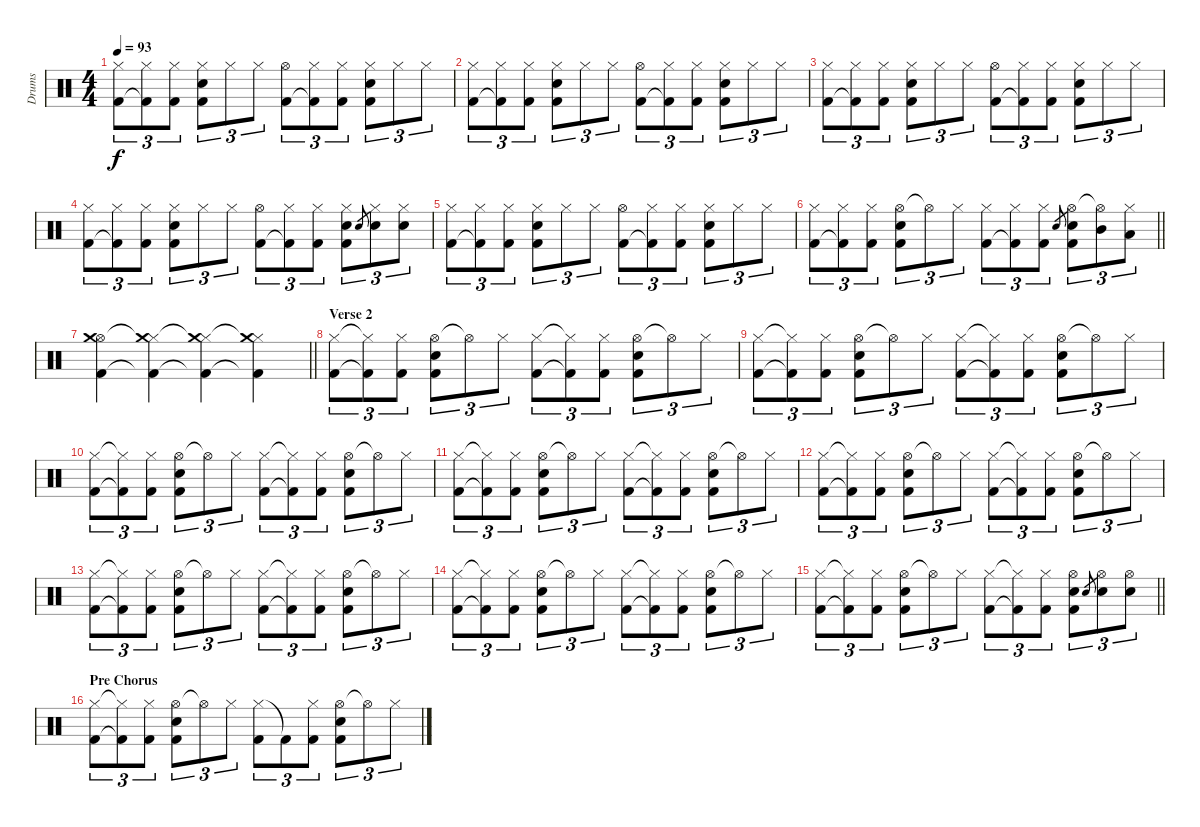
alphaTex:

\track ("Drums" "Drums") {instrument percussion}
\staff {score}
\articulation defaults
\ts (4 4)
\tempo 93
\clef neutral
\ks c
("Hi-Hat (closed)" "Kick (hit) 2").8{tu (3 2) dy f} ("Hi-Hat (closed)" "Kick (hit) 2"{t}).8{tu (3 2)} ("Hi-Hat (closed)" "Kick (hit) 2").8{tu (3 2)} ("Hi-Hat (closed)" "Snare (hit) 2" "Kick (hit) 2").8{tu (3 2)} "Hi-Hat (closed)".8{tu (3 2)} "Hi-Hat (closed)".8{tu (3 2)} ("Hi-Hat (open)" "Kick (hit) 2").8{tu (3 2)} ("Hi-Hat (closed)" "Kick (hit) 2"{t}).8{tu (3 2)} ("Hi-Hat (closed)" "Kick (hit) 2").8{tu (3 2)} ("Hi-Hat (closed)" "Snare (hit) 2" "Kick (hit) 2").8{tu (3 2)} "Hi-Hat (closed)".8{tu (3 2)} "Hi-Hat (closed)".8{tu (3 2)} |
("Hi-Hat (closed)" "Kick (hit) 2").8{tu (3 2)} ("Hi-Hat (closed)" "Kick (hit) 2"{t}).8{tu (3 2)} ("Hi-Hat (closed)" "Kick (hit) 2").8{tu (3 2)} ("Hi-Hat (closed)" "Snare (hit) 2" "Kick (hit) 2").8{tu (3 2)} "Hi-Hat (closed)".8{tu (3 2)} "Hi-Hat (closed)".8{tu (3 2)} ("Hi-Hat (open)" "Kick (hit) 2").8{tu (3 2)} ("Hi-Hat (closed)" "Kick (hit) 2"{t}).8{tu (3 2)} ("Hi-Hat (closed)" "Kick (hit) 2").8{tu (3 2)} ("Hi-Hat (closed)" "Snare (hit) 2" "Kick (hit) 2").8{tu (3 2)} "Hi-Hat (closed)".8{tu (3 2)} "Hi-Hat (closed)".8{tu (3 2)} |
("Hi-Hat (closed)" "Kick (hit) 2").8{tu (3 2)} ("Hi-Hat (closed)" "Kick (hit) 2"{t}).8{tu (3 2)} ("Hi-Hat (closed)" "Kick (hit) 2").8{tu (3 2)} ("Hi-Hat (closed)" "Snare (hit) 2" "Kick (hit) 2").8{tu (3 2)} "Hi-Hat (closed)".8{tu (3 2)} "Hi-Hat (closed)".8{tu (3 2)} ("Hi-Hat (open)" "Kick (hit) 2").8{tu (3 2)} ("Hi-Hat (closed)" "Kick (hit) 2"{t}).8{tu (3 2)} ("Hi-Hat (closed)" "Kick (hit) 2").8{tu (3 2)} ("Hi-Hat (closed)" "Snare (hit) 2" "Kick (hit) 2").8{tu (3 2)} "Hi-Hat (closed)".8{tu (3 2)} "Hi-Hat (closed)".8{tu (3 2)} |
("Hi-Hat (closed)" "Kick (hit) 2").8{tu (3 2)} ("Hi-Hat (closed)" "Kick (hit) 2"{t}).8{tu (3 2)} ("Hi-Hat (closed)" "Kick (hit) 2").8{tu (3 2)} ("Hi-Hat (closed)" "Snare (hit) 2" "Kick (hit) 2").8{tu (3 2)} "Hi-Hat (closed)".8{tu (3 2)} "Hi-Hat (closed)".8{tu (3 2)} ("Hi-Hat (open)" "Kick (hit) 2").8{tu (3 2)} ("Hi-Hat (closed)" "Kick (hit) 2"{t}).8{tu (3 2)} ("Hi-Hat (closed)" "Kick (hit) 2").8{tu (3 2)} ("Hi-Hat (closed)" "Snare (hit) 2" "Kick (hit) 2").8{tu (3 2)} "Snare (hit) 2".8{gr} ("Hi-Hat (closed)" "Snare (hit) 2").8{tu (3 2)} ("Hi-Hat (closed)" "Snare (hit) 2").8{tu (3 2)} |
("Hi-Hat (closed)" "Kick (hit) 2").8{tu (3 2)} ("Hi-Hat (closed)" "Kick (hit) 2"{t}).8{tu (3 2)} ("Hi-Hat (closed)" "Kick (hit) 2").8{tu (3 2)} ("Hi-Hat (closed)" "Snare (hit) 2" "Kick (hit) 2").8{tu (3 2)} "Hi-Hat (closed)".8{tu (3 2)} "Hi-Hat (closed)".8{tu (3 2)} ("Hi-Hat (open)" "Kick (hit) 2").8{tu (3 2)} ("Hi-Hat (closed)" "Kick (hit) 2"{t}).8{tu (3 2)} ("Hi-Hat (closed)" "Kick (hit) 2").8{tu (3 2)} ("Hi-Hat (closed)" "Snare (hit) 2" "Kick (hit) 2").8{tu (3 2)} "Hi-Hat (closed)".8{tu (3 2)} "Hi-Hat (closed)".8{tu (3 2)} |
\barLineRight lightlight
("Hi-Hat (closed)" "Kick (hit) 2").8{tu (3 2)} ("Hi-Hat (closed)" "Kick (hit) 2"{t}).8{tu (3 2)} ("Hi-Hat (closed)" "Kick (hit) 2").8{tu (3 2)} ("Hi-Hat (open)" "Snare (hit) 2" "Kick (hit) 2").8{tu (3 2)} "Hi-Hat (open)"{t}.8{tu (3 2)} "Hi-Hat (closed)".8{tu (3 2)} ("Hi-Hat (closed)" "Kick (hit) 2").8{tu (3 2)} ("Hi-Hat (closed)" "Kick (hit) 2"{t}).8{tu (3 2)} ("Hi-Hat (closed)" "Kick (hit) 2").8{tu (3 2)} "Snare (hit) 2".8{gr} ("Hi-Hat (open)" "Snare (hit) 2" "Kick (hit) 2").8{tu (3 2)} ("Hi-Hat (open)"{t} "Mid Tom (hit)").8{tu (3 2)} ("Hi-Hat (closed)" "Low Floor Tom (hit)").8{tu (3 2)} |
\barLineRight lightlight
("Hi-Hat (open)" "Crash medium (hit)" "Kick (hit) 2").4 ("Hi-Hat (closed)" "Crash medium (hit)"{t} "Kick (hit) 2"{t}).4 ("Hi-Hat (closed)" "Crash medium (hit)"{t} "Kick (hit) 2"{t}).4 ("Hi-Hat (closed)" "Crash medium (hit)"{t} "Kick (hit) 2"{t}).4 |
\section ("" "Verse 2")
("Hi-Hat (closed)" "Kick (hit) 2").8{tu (3 2)} ("Hi-Hat (closed)"{t} "Kick (hit) 2"{t}).8{tu (3 2)} ("Hi-Hat (closed)" "Kick (hit) 2").8{tu (3 2)} ("Hi-Hat (open)" "Snare (hit) 2" "Kick (hit) 2").8{tu (3 2)} "Hi-Hat (open)"{t}.8{tu (3 2)} "Hi-Hat (closed)".8{tu (3 2)} ("Hi-Hat (closed)" "Kick (hit) 2").8{tu (3 2)} ("Hi-Hat (closed)"{t} "Kick (hit) 2"{t}).8{tu (3 2)} ("Hi-Hat (closed)" "Kick (hit) 2").8{tu (3 2)} ("Hi-Hat (open)" "Snare (hit) 2" "Kick (hit) 2").8{tu (3 2)} "Hi-Hat (open)"{t}.8{tu (3 2)} "Hi-Hat (closed)".8{tu (3 2)} |
("Hi-Hat (closed)" "Kick (hit) 2").8{tu (3 2)} ("Hi-Hat (closed)"{t} "Kick (hit) 2"{t}).8{tu (3 2)} ("Hi-Hat (closed)" "Kick (hit) 2").8{tu (3 2)} ("Hi-Hat (open)" "Snare (hit) 2" "Kick (hit) 2").8{tu (3 2)} "Hi-Hat (open)"{t}.8{tu (3 2)} "Hi-Hat (closed)".8{tu (3 2)} ("Hi-Hat (closed)" "Kick (hit) 2").8{tu (3 2)} ("Hi-Hat (closed)"{t} "Kick (hit) 2"{t}).8{tu (3 2)} ("Hi-Hat (closed)" "Kick (hit) 2").8{tu (3 2)} ("Hi-Hat (open)" "Snare (hit) 2" "Kick (hit) 2").8{tu (3 2)} "Hi-Hat (open)"{t}.8{tu (3 2)} "Hi-Hat (closed)".8{tu (3 2)} |
("Hi-Hat (closed)" "Kick (hit) 2").8{tu (3 2)} ("Hi-Hat (closed)"{t} "Kick (hit) 2"{t}).8{tu (3 2)} ("Hi-Hat (closed)" "Kick (hit) 2").8{tu (3 2)} ("Hi-Hat (open)" "Snare (hit) 2" "Kick (hit) 2").8{tu (3 2)} "Hi-Hat (open)"{t}.8{tu (3 2)} "Hi-Hat (closed)".8{tu (3 2)} ("Hi-Hat (closed)" "Kick (hit) 2").8{tu (3 2)} ("Hi-Hat (closed)"{t} "Kick (hit) 2"{t}).8{tu (3 2)} ("Hi-Hat (closed)" "Kick (hit) 2").8{tu (3 2)} ("Hi-Hat (open)" "Snare (hit) 2" "Kick (hit) 2").8{tu (3 2)} "Hi-Hat (open)"{t}.8{tu (3 2)} "Hi-Hat (closed)".8{tu (3 2)} |
("Hi-Hat (closed)" "Kick (hit) 2").8{tu (3 2)} ("Hi-Hat (closed)"{t} "Kick (hit) 2"{t}).8{tu (3 2)} ("Hi-Hat (closed)" "Kick (hit) 2").8{tu (3 2)} ("Hi-Hat (open)" "Snare (hit) 2" "Kick (hit) 2").8{tu (3 2)} "Hi-Hat (open)"{t}.8{tu (3 2)} "Hi-Hat (closed)".8{tu (3 2)} ("Hi-Hat (closed)" "Kick (hit) 2").8{tu (3 2)} ("Hi-Hat (closed)"{t} "Kick (hit) 2"{t}).8{tu (3 2)} ("Hi-Hat (closed)" "Kick (hit) 2").8{tu (3 2)} ("Hi-Hat (open)" "Snare (hit) 2" "Kick (hit) 2").8{tu (3 2)} "Hi-Hat (open)"{t}.8{tu (3 2)} "Hi-Hat (closed)".8{tu (3 2)} |
("Hi-Hat (closed)" "Kick (hit) 2").8{tu (3 2)} ("Hi-Hat (closed)"{t} "Kick (hit) 2"{t}).8{tu (3 2)} ("Hi-Hat (closed)" "Kick (hit) 2").8{tu (3 2)} ("Hi-Hat (open)" "Snare (hit) 2" "Kick (hit) 2").8{tu (3 2)} "Hi-Hat (open)"{t}.8{tu (3 2)} "Hi-Hat (closed)".8{tu (3 2)} ("Hi-Hat (closed)" "Kick (hit) 2").8{tu (3 2)} ("Hi-Hat (closed)"{t} "Kick (hit) 2"{t}).8{tu (3 2)} ("Hi-Hat (closed)" "Kick (hit) 2").8{tu (3 2)} ("Hi-Hat (open)" "Snare (hit) 2" "Kick (hit) 2").8{tu (3 2)} "Hi-Hat (open)"{t}.8{tu (3 2)} "Hi-Hat (closed)".8{tu (3 2)} |
("Hi-Hat (closed)" "Kick (hit) 2").8{tu (3 2)} ("Hi-Hat (closed)"{t} "Kick (hit) 2"{t}).8{tu (3 2)} ("Hi-Hat (closed)" "Kick (hit) 2").8{tu (3 2)} ("Hi-Hat (open)" "Snare (hit) 2" "Kick (hit) 2").8{tu (3 2)} "Hi-Hat (open)"{t}.8{tu (3 2)} "Hi-Hat (closed)".8{tu (3 2)} ("Hi-Hat (closed)" "Kick (hit) 2").8{tu (3 2)} ("Hi-Hat (closed)"{t} "Kick (hit) 2"{t}).8{tu (3 2)} ("Hi-Hat (closed)" "Kick (hit) 2").8{tu (3 2)} ("Hi-Hat (open)" "Snare (hit) 2" "Kick (hit) 2").8{tu (3 2)} "Hi-Hat (open)"{t}.8{tu (3 2)} "Hi-Hat (closed)".8{tu (3 2)} |
("Hi-Hat (closed)" "Kick (hit) 2").8{tu (3 2)} ("Hi-Hat (closed)"{t} "Kick (hit) 2"{t}).8{tu (3 2)} ("Hi-Hat (closed)" "Kick (hit) 2").8{tu (3 2)} ("Hi-Hat (open)" "Snare (hit) 2" "Kick (hit) 2").8{tu (3 2)} "Hi-Hat (open)"{t}.8{tu (3 2)} "Hi-Hat (closed)".8{tu (3 2)} ("Hi-Hat (closed)" "Kick (hit) 2").8{tu (3 2)} ("Hi-Hat (closed)"{t} "Kick (hit) 2"{t}).8{tu (3 2)} ("Hi-Hat (closed)" "Kick (hit) 2").8{tu (3 2)} ("Hi-Hat (open)" "Snare (hit) 2" "Kick (hit) 2").8{tu (3 2)} "Hi-Hat (open)"{t}.8{tu (3 2)} "Hi-Hat (closed)".8{tu (3 2)} |
\barLineRight lightlight
("Hi-Hat (closed)" "Kick (hit) 2").8{tu (3 2)} ("Hi-Hat (closed)"{t} "Kick (hit) 2"{t}).8{tu (3 2)} ("Hi-Hat (closed)" "Kick (hit) 2").8{tu (3 2)} ("Hi-Hat (open)" "Snare (hit) 2" "Kick (hit) 2").8{tu (3 2)} "Hi-Hat (open)"{t}.8{tu (3 2)} "Hi-Hat (closed)".8{tu (3 2)} ("Hi-Hat (closed)" "Kick (hit) 2").8{tu (3 2)} ("Hi-Hat (closed)"{t} "Kick (hit) 2"{t}).8{tu (3 2)} ("Hi-Hat (closed)" "Kick (hit) 2").8{tu (3 2)} ("Hi-Hat (open)" "Snare (hit) 2" "Kick (hit) 2").8{tu (3 2)} "Snare (hit) 2".8{gr} ("Hi-Hat (open)" "Snare (hit) 2").8{tu (3 2)} ("Hi-Hat (open)" "Snare (hit) 2").8{tu (3 2)} |
\section ("" "Pre Chorus")
("Hi-Hat (closed)" "Kick (hit) 2").8{tu (3 2)} ("Hi-Hat (closed)"{t} "Kick (hit) 2"{t}).8{tu (3 2)} ("Hi-Hat (closed)" "Kick (hit) 2").8{tu (3 2)} ("Hi-Hat (open)" "Snare (hit) 2" "Kick (hit) 2").8{tu (3 2)} "Hi-Hat (open)"{t}.8{tu (3 2)} "Hi-Hat (closed)".8{tu (3 2)} ("Hi-Hat (closed)" "Kick (hit) 2").8{tu (3 2)} "Kick (hit) 2"{t}.8{tu (3 2)} ("Hi-Hat (closed)" "Kick (hit) 2").8{tu (3 2)} ("Hi-Hat (open)" "Snare (hit) 2" "Kick (hit) 2").8{tu (3 2)} "Hi-Hat (open)"{t}.8{tu (3 2)} "Hi-Hat (closed)".8{tu (3 2)}
